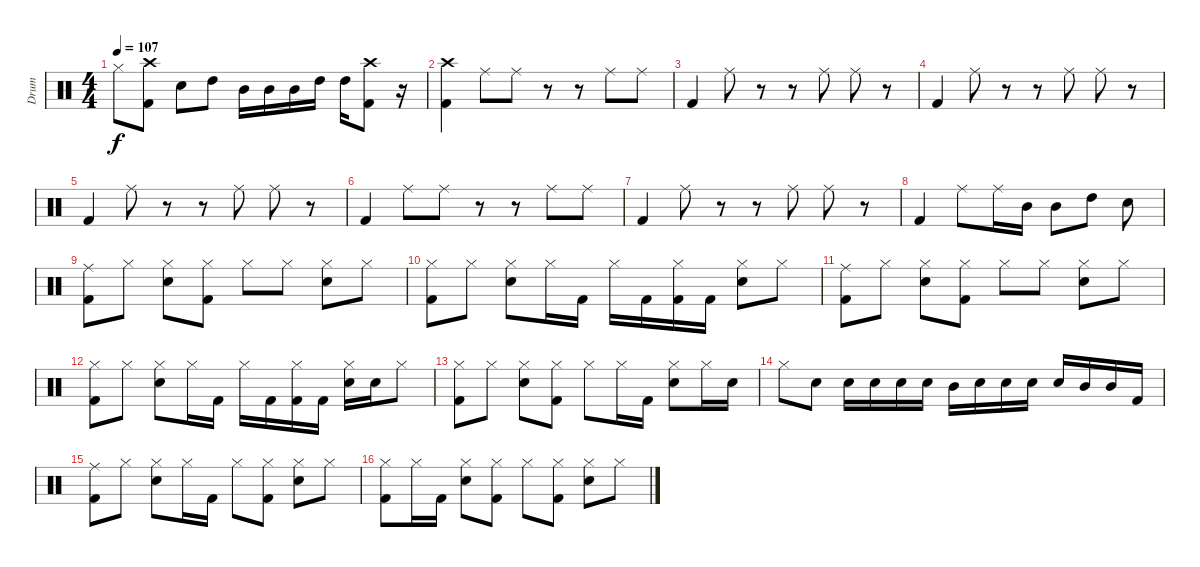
\track ("Drum" "Drum") {instrument percussion}
\staff {score}
\articulation defaults
\ts (4 4)
\tempo 107
\clef neutral
\ks c "Hi-Hat (closed)".8{dy f}
("Crash high (hit)" "Kick (hit) 2").8 "Snare (hit) 2".8 "High Tom (hit)".8 "Mid Tom (hit)".16 "Mid Tom (hit)".16 "Mid Tom (hit)".16 "High Tom (hit)".16 "High Tom (hit)".16 ("Crash high (hit)" "Kick (hit) 2").8 r.16 |
("Crash high (hit)" "Kick (hit) 2").4 "Ride (middle)".8 "Ride (middle)".8 r.8 r.8 "Ride (middle)".8 "Ride (middle)".8 |
"Kick (hit) 2".4 "Ride (middle)".8 r.8 r.8 "Ride (middle)".8 "Ride (middle)".8 r.8 |
"Kick (hit) 2".4 "Ride (middle)".8 r.8 r.8 "Ride (middle)".8 "Ride (middle)".8 r.8 |
"Kick (hit) 2".4 "Ride (middle)".8 r.8 r.8 "Ride (middle)".8 "Ride (middle)".8 r.8 |
"Kick (hit) 2".4 "Ride (middle)".8 "Ride (middle)".8 r.8 r.8 "Ride (middle)".8 "Ride (middle)".8 |
"Kick (hit) 2".4 "Ride (middle)".8 r.8 r.8 "Ride (middle)".8 "Ride (middle)".8 r.8 |
"Kick (hit) 2".4 "Ride (middle)".8 "Ride (middle)".16 "Mid Tom (hit)".16 "Mid Tom (hit)".8 "High Tom (hit)".8 "Snare (hit) 2".8 |
("Ride (middle)" "Kick (hit) 2").8 "Hi-Hat (closed)".8 ("Hi-Hat (closed)" "Snare (hit) 2").8 ("Hi-Hat (closed)" "Kick (hit) 2").8 "Hi-Hat (closed)".8 "Hi-Hat (closed)".8 ("Hi-Hat (closed)" "Snare (hit) 2").8 "Hi-Hat (closed)".8 |
("Hi-Hat (closed)" "Kick (hit) 2").8 "Hi-Hat (closed)".8 ("Hi-Hat (closed)" "Snare (hit) 2").8 "Hi-Hat (closed)".16 "Kick (hit) 2".16 "Hi-Hat (closed)".16 "Kick (hit) 2".16 ("Hi-Hat (closed)" "Kick (hit) 2").16 "Kick (hit) 2".16 ("Hi-Hat (closed)" "Snare (hit) 2").8 "Hi-Hat (closed)".8 |
("Ride (middle)" "Kick (hit) 2").8 "Hi-Hat (closed)".8 ("Hi-Hat (closed)" "Snare (hit) 2").8 ("Hi-Hat (closed)" "Kick (hit) 2").8 "Hi-Hat (closed)".8 "Hi-Hat (closed)".8 ("Hi-Hat (closed)" "Snare (hit) 2").8 "Hi-Hat (closed)".8 |
("Hi-Hat (closed)" "Kick (hit) 2").8 "Hi-Hat (closed)".8 ("Hi-Hat (closed)" "Snare (hit) 2").8 "Hi-Hat (closed)".16 "Kick (hit) 2".16 "Hi-Hat (closed)".16 "Kick (hit) 2".16 ("Hi-Hat (closed)" "Kick (hit) 2").16 "Kick (hit) 2".16 ("Hi-Hat (closed)" "Snare (hit) 2").16 "Snare (hit) 2".16 "Hi-Hat (closed)".8 |
("Hi-Hat (closed)" "Kick (hit) 2").8 "Hi-Hat (closed)".8 ("Hi-Hat (closed)" "Snare (hit) 2").8 ("Hi-Hat (closed)" "Kick (hit) 2").8 "Hi-Hat (closed)".8 "Hi-Hat (closed)".16 "Kick (hit) 2".16 ("Hi-Hat (closed)" "Snare (hit) 2").8 "Hi-Hat (closed)".16 "Snare (hit) 2".16 |
"Hi-Hat (closed)".8 "Snare (hit) 2".8 "Snare (hit) 2".16 "Snare (hit) 2".16 "Snare (hit) 2".16 "Snare (hit) 2".16 "Mid Tom (hit)".16 "Snare (hit) 2".16 "Snare (hit) 2".16 "Snare (hit) 2".16 "Snare (hit) 2".16 "Mid Tom (hit)".16 "Mid Tom (hit)".16 "Kick (hit) 2".16 |
("Ride (middle)" "Kick (hit) 2").8 "Hi-Hat (closed)".8 ("Hi-Hat (closed)" "Snare (hit) 2").8 "Hi-Hat (closed)".16 "Kick (hit) 2".16 "Hi-Hat (closed)".8 ("Hi-Hat (closed)" "Kick (hit) 2").8 ("Hi-Hat (closed)" "Snare (hit) 2").8 "Hi-Hat (closed)".8 |
("Hi-Hat (closed)" "Kick (hit) 2").8 "Hi-Hat (closed)".16 "Kick (hit) 2".16 ("Hi-Hat (closed)" "Snare (hit) 2").8 ("Hi-Hat (closed)" "Kick (hit) 2").8 "Hi-Hat (closed)".8 ("Hi-Hat (closed)" "Kick (hit) 2").8 ("Hi-Hat (closed)" "Snare (hit) 2").8 "Hi-Hat (closed)".8
